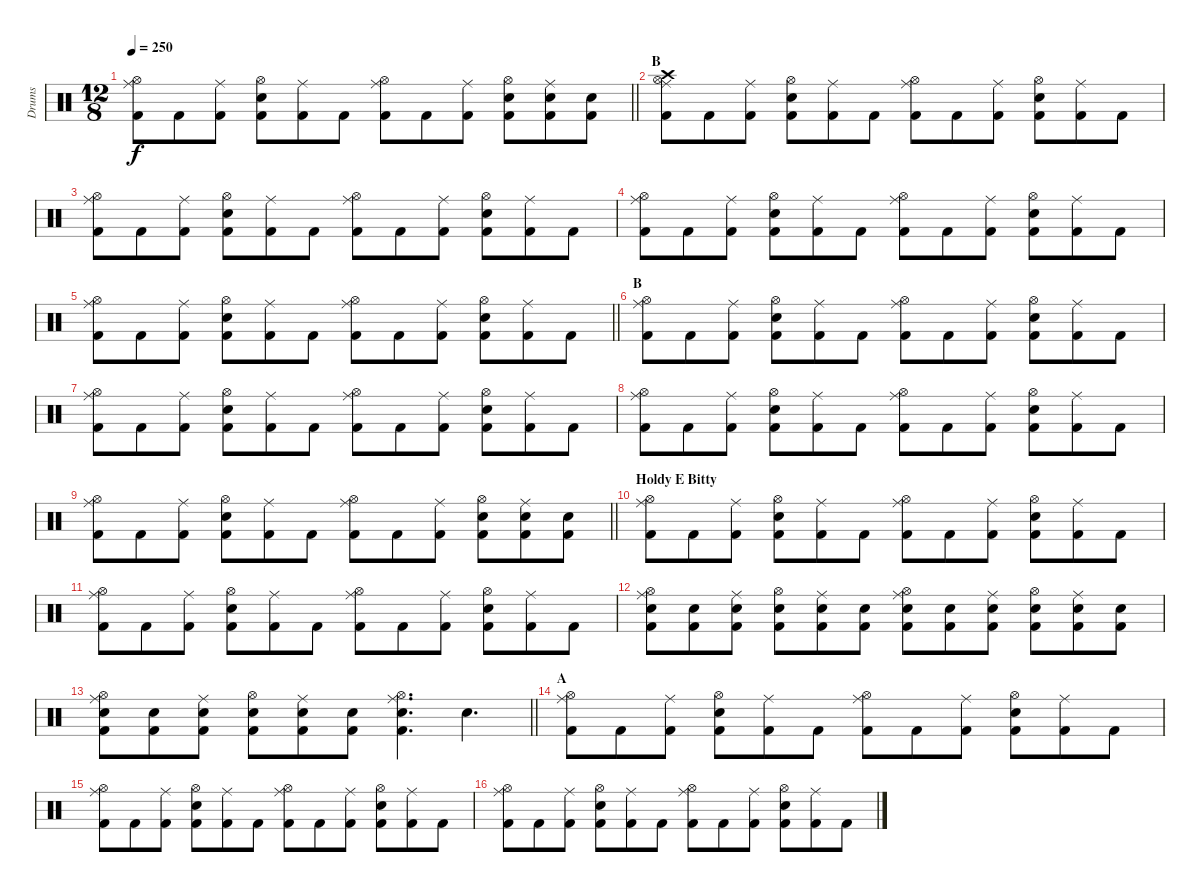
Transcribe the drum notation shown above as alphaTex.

\track ("Drums" "Drums") {instrument percussion}
\staff {score}
\articulation defaults
\ts (12 8)
\tempo 250
\clef neutral
\barLineRight lightlight
\ks c
("Ride (middle)" "Hi-Hat (open)" "Kick (hit) 2").8{dy f} "Kick (hit) 2".8 ("Ride (middle)" "Kick (hit) 2").8 ("Hi-Hat (open)" "Snare (hit) 2" "Kick (hit) 2").8 ("Ride (middle)" "Kick (hit) 2").8 "Kick (hit) 2".8 ("Ride (middle)" "Hi-Hat (open)" "Kick (hit) 2").8 "Kick (hit) 2".8 ("Ride (middle)" "Kick (hit) 2").8 ("Hi-Hat (open)" "Snare (hit) 2" "Kick (hit) 2").8 ("Ride (middle)" "Snare (hit) 2" "Kick (hit) 2").8 ("Snare (hit) 2" "Kick (hit) 2").8 |
\section ("" "B")
("Crash high (hit)" "Ride (middle)" "Hi-Hat (open)" "Kick (hit) 2").8 "Kick (hit) 2".8 ("Ride (middle)" "Kick (hit) 2").8 ("Hi-Hat (open)" "Snare (hit) 2" "Kick (hit) 2").8 ("Ride (middle)" "Kick (hit) 2").8 "Kick (hit) 2".8 ("Ride (middle)" "Hi-Hat (open)" "Kick (hit) 2").8 "Kick (hit) 2".8 ("Ride (middle)" "Kick (hit) 2").8 ("Hi-Hat (open)" "Snare (hit) 2" "Kick (hit) 2").8 ("Ride (middle)" "Kick (hit) 2").8 "Kick (hit) 2".8 |
("Ride (middle)" "Hi-Hat (open)" "Kick (hit) 2").8 "Kick (hit) 2".8 ("Ride (middle)" "Kick (hit) 2").8 ("Hi-Hat (open)" "Snare (hit) 2" "Kick (hit) 2").8 ("Ride (middle)" "Kick (hit) 2").8 "Kick (hit) 2".8 ("Ride (middle)" "Hi-Hat (open)" "Kick (hit) 2").8 "Kick (hit) 2".8 ("Ride (middle)" "Kick (hit) 2").8 ("Hi-Hat (open)" "Snare (hit) 2" "Kick (hit) 2").8 ("Ride (middle)" "Kick (hit) 2").8 "Kick (hit) 2".8 |
("Ride (middle)" "Hi-Hat (open)" "Kick (hit) 2").8 "Kick (hit) 2".8 ("Ride (middle)" "Kick (hit) 2").8 ("Hi-Hat (open)" "Snare (hit) 2" "Kick (hit) 2").8 ("Ride (middle)" "Kick (hit) 2").8 "Kick (hit) 2".8 ("Ride (middle)" "Hi-Hat (open)" "Kick (hit) 2").8 "Kick (hit) 2".8 ("Ride (middle)" "Kick (hit) 2").8 ("Hi-Hat (open)" "Snare (hit) 2" "Kick (hit) 2").8 ("Ride (middle)" "Kick (hit) 2").8 "Kick (hit) 2".8 |
\barLineRight lightlight
("Ride (middle)" "Hi-Hat (open)" "Kick (hit) 2").8 "Kick (hit) 2".8 ("Ride (middle)" "Kick (hit) 2").8 ("Hi-Hat (open)" "Snare (hit) 2" "Kick (hit) 2").8 ("Ride (middle)" "Kick (hit) 2").8 "Kick (hit) 2".8 ("Ride (middle)" "Hi-Hat (open)" "Kick (hit) 2").8 "Kick (hit) 2".8 ("Ride (middle)" "Kick (hit) 2").8 ("Hi-Hat (open)" "Snare (hit) 2" "Kick (hit) 2").8 ("Ride (middle)" "Kick (hit) 2").8 "Kick (hit) 2".8 |
\section ("" "B")
("Ride (middle)" "Hi-Hat (open)" "Kick (hit) 2").8 "Kick (hit) 2".8 ("Ride (middle)" "Kick (hit) 2").8 ("Hi-Hat (open)" "Snare (hit) 2" "Kick (hit) 2").8 ("Ride (middle)" "Kick (hit) 2").8 "Kick (hit) 2".8 ("Ride (middle)" "Hi-Hat (open)" "Kick (hit) 2").8 "Kick (hit) 2".8 ("Ride (middle)" "Kick (hit) 2").8 ("Hi-Hat (open)" "Snare (hit) 2" "Kick (hit) 2").8 ("Ride (middle)" "Kick (hit) 2").8 "Kick (hit) 2".8 |
("Ride (middle)" "Hi-Hat (open)" "Kick (hit) 2").8 "Kick (hit) 2".8 ("Ride (middle)" "Kick (hit) 2").8 ("Hi-Hat (open)" "Snare (hit) 2" "Kick (hit) 2").8 ("Ride (middle)" "Kick (hit) 2").8 "Kick (hit) 2".8 ("Ride (middle)" "Hi-Hat (open)" "Kick (hit) 2").8 "Kick (hit) 2".8 ("Ride (middle)" "Kick (hit) 2").8 ("Hi-Hat (open)" "Snare (hit) 2" "Kick (hit) 2").8 ("Ride (middle)" "Kick (hit) 2").8 "Kick (hit) 2".8 |
("Ride (middle)" "Hi-Hat (open)" "Kick (hit) 2").8 "Kick (hit) 2".8 ("Ride (middle)" "Kick (hit) 2").8 ("Hi-Hat (open)" "Snare (hit) 2" "Kick (hit) 2").8 ("Ride (middle)" "Kick (hit) 2").8 "Kick (hit) 2".8 ("Ride (middle)" "Hi-Hat (open)" "Kick (hit) 2").8 "Kick (hit) 2".8 ("Ride (middle)" "Kick (hit) 2").8 ("Hi-Hat (open)" "Snare (hit) 2" "Kick (hit) 2").8 ("Ride (middle)" "Kick (hit) 2").8 "Kick (hit) 2".8 |
\barLineRight lightlight
("Ride (middle)" "Hi-Hat (open)" "Kick (hit) 2").8 "Kick (hit) 2".8 ("Ride (middle)" "Kick (hit) 2").8 ("Hi-Hat (open)" "Snare (hit) 2" "Kick (hit) 2").8 ("Ride (middle)" "Kick (hit) 2").8 "Kick (hit) 2".8 ("Ride (middle)" "Hi-Hat (open)" "Kick (hit) 2").8 "Kick (hit) 2".8 ("Ride (middle)" "Kick (hit) 2").8 ("Hi-Hat (open)" "Snare (hit) 2" "Kick (hit) 2").8 ("Ride (middle)" "Snare (hit) 2" "Kick (hit) 2").8 ("Snare (hit) 2" "Kick (hit) 2").8 |
\section ("" "Holdy E Bitty")
("Ride (middle)" "Hi-Hat (open)" "Kick (hit) 2").8 "Kick (hit) 2".8 ("Ride (middle)" "Kick (hit) 2").8 ("Hi-Hat (open)" "Snare (hit) 2" "Kick (hit) 2").8 ("Ride (middle)" "Kick (hit) 2").8 "Kick (hit) 2".8 ("Ride (middle)" "Hi-Hat (open)" "Kick (hit) 2").8 "Kick (hit) 2".8 ("Ride (middle)" "Kick (hit) 2").8 ("Hi-Hat (open)" "Snare (hit) 2" "Kick (hit) 2").8 ("Ride (middle)" "Kick (hit) 2").8 "Kick (hit) 2".8 |
("Ride (middle)" "Hi-Hat (open)" "Kick (hit) 2").8 "Kick (hit) 2".8 ("Ride (middle)" "Kick (hit) 2").8 ("Hi-Hat (open)" "Snare (hit) 2" "Kick (hit) 2").8 ("Ride (middle)" "Kick (hit) 2").8 "Kick (hit) 2".8 ("Ride (middle)" "Hi-Hat (open)" "Kick (hit) 2").8 "Kick (hit) 2".8 ("Ride (middle)" "Kick (hit) 2").8 ("Hi-Hat (open)" "Snare (hit) 2" "Kick (hit) 2").8 ("Ride (middle)" "Kick (hit) 2").8 "Kick (hit) 2".8 |
("Ride (middle)" "Hi-Hat (open)" "Snare (hit) 2" "Kick (hit) 2").8 ("Snare (hit) 2" "Kick (hit) 2").8 ("Ride (middle)" "Snare (hit) 2" "Kick (hit) 2").8 ("Hi-Hat (open)" "Snare (hit) 2" "Kick (hit) 2").8 ("Ride (middle)" "Snare (hit) 2" "Kick (hit) 2").8 ("Snare (hit) 2" "Kick (hit) 2").8 ("Ride (middle)" "Hi-Hat (open)" "Snare (hit) 2" "Kick (hit) 2").8 ("Snare (hit) 2" "Kick (hit) 2").8 ("Ride (middle)" "Snare (hit) 2" "Kick (hit) 2").8 ("Hi-Hat (open)" "Snare (hit) 2" "Kick (hit) 2").8 ("Ride (middle)" "Snare (hit) 2" "Kick (hit) 2").8 ("Snare (hit) 2" "Kick (hit) 2").8 |
\barLineRight lightlight
("Ride (middle)" "Hi-Hat (open)" "Snare (hit) 2" "Kick (hit) 2").8 ("Snare (hit) 2" "Kick (hit) 2").8 ("Ride (middle)" "Snare (hit) 2" "Kick (hit) 2").8 ("Hi-Hat (open)" "Snare (hit) 2" "Kick (hit) 2").8 ("Ride (middle)" "Snare (hit) 2" "Kick (hit) 2").8 ("Snare (hit) 2" "Kick (hit) 2").8 ("Ride (middle)" "Hi-Hat (open)" "Snare (hit) 2" "Kick (hit) 2").4{d} "Snare (hit) 2".4{d} |
\section ("" "A")
("Ride (middle)" "Hi-Hat (open)" "Kick (hit) 2").8 "Kick (hit) 2".8 ("Ride (middle)" "Kick (hit) 2").8 ("Hi-Hat (open)" "Snare (hit) 2" "Kick (hit) 2").8 ("Ride (middle)" "Kick (hit) 2").8 "Kick (hit) 2".8 ("Ride (middle)" "Hi-Hat (open)" "Kick (hit) 2").8 "Kick (hit) 2".8 ("Ride (middle)" "Kick (hit) 2").8 ("Hi-Hat (open)" "Snare (hit) 2" "Kick (hit) 2").8 ("Ride (middle)" "Kick (hit) 2").8 "Kick (hit) 2".8 |
("Ride (middle)" "Hi-Hat (open)" "Kick (hit) 2").8 "Kick (hit) 2".8 ("Ride (middle)" "Kick (hit) 2").8 ("Hi-Hat (open)" "Snare (hit) 2" "Kick (hit) 2").8 ("Ride (middle)" "Kick (hit) 2").8 "Kick (hit) 2".8 ("Ride (middle)" "Hi-Hat (open)" "Kick (hit) 2").8 "Kick (hit) 2".8 ("Ride (middle)" "Kick (hit) 2").8 ("Hi-Hat (open)" "Snare (hit) 2" "Kick (hit) 2").8 ("Ride (middle)" "Kick (hit) 2").8 "Kick (hit) 2".8 |
("Ride (middle)" "Hi-Hat (open)" "Kick (hit) 2").8 "Kick (hit) 2".8 ("Ride (middle)" "Kick (hit) 2").8 ("Hi-Hat (open)" "Snare (hit) 2" "Kick (hit) 2").8 ("Ride (middle)" "Kick (hit) 2").8 "Kick (hit) 2".8 ("Ride (middle)" "Hi-Hat (open)" "Kick (hit) 2").8 "Kick (hit) 2".8 ("Ride (middle)" "Kick (hit) 2").8 ("Hi-Hat (open)" "Snare (hit) 2" "Kick (hit) 2").8 ("Ride (middle)" "Kick (hit) 2").8 "Kick (hit) 2".8
